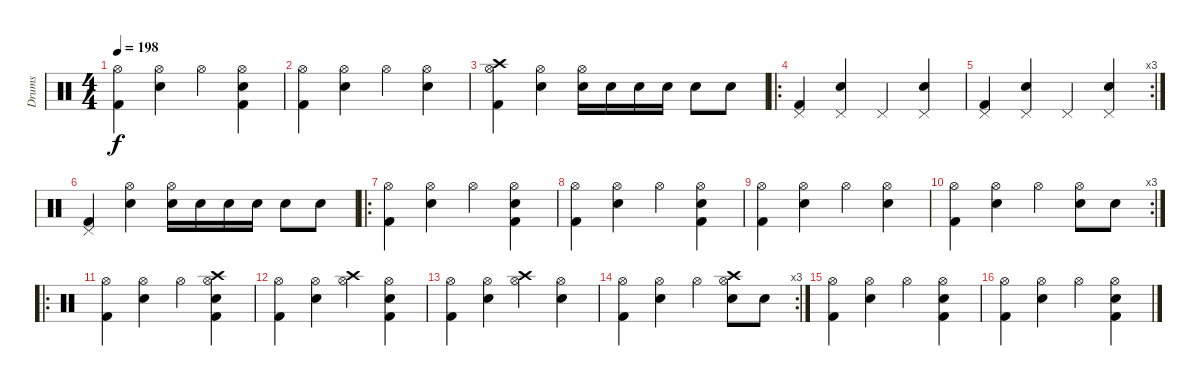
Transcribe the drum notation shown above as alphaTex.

\track ("Drums" "Drums") {instrument percussion}
\staff {score}
\articulation defaults
\ts (4 4)
\tempo 198
\clef neutral
\ks c
("Hi-Hat (open)" "Kick (hit) 2").4{dy f} ("Hi-Hat (open)" "Snare (hit) 2").4 "Hi-Hat (open)".4 ("Hi-Hat (open)" "Snare (hit) 2" "Kick (hit) 2").4 |
("Hi-Hat (open)" "Kick (hit) 2").4 ("Hi-Hat (open)" "Snare (hit) 2").4 "Hi-Hat (open)".4 ("Hi-Hat (open)" "Snare (hit) 2").4 |
("Hi-Hat (open)" "Kick (hit) 2" "Crash high (hit)").4 ("Hi-Hat (open)" "Snare (hit) 2").4 ("Hi-Hat (open)" "Snare (hit) 2").16 "Snare (hit) 2".16 "Snare (hit) 2".16 "Snare (hit) 2".16 "Snare (hit) 2".8 "Snare (hit) 2".8 |
\ro
("Pedal Hi-Hat (hit)" "Kick (hit) 2").4 ("Pedal Hi-Hat (hit)" "Snare (hit) 2").4 "Pedal Hi-Hat (hit)".4 ("Pedal Hi-Hat (hit)" "Snare (hit) 2").4 |
\rc 3
("Pedal Hi-Hat (hit)" "Kick (hit) 2").4 ("Pedal Hi-Hat (hit)" "Snare (hit) 2").4 "Pedal Hi-Hat (hit)".4 ("Pedal Hi-Hat (hit)" "Snare (hit) 2").4 |
("Pedal Hi-Hat (hit)" "Kick (hit) 2").4 ("Hi-Hat (open)" "Snare (hit) 2").4 ("Snare (hit) 2" "Hi-Hat (open)").16 "Snare (hit) 2".16 "Snare (hit) 2".16 "Snare (hit) 2".16 "Snare (hit) 2".8 "Snare (hit) 2".8 |
\ro
("Hi-Hat (open)" "Kick (hit) 2").4 ("Hi-Hat (open)" "Snare (hit) 2").4 "Hi-Hat (open)".4 ("Hi-Hat (open)" "Snare (hit) 2" "Kick (hit) 2").4 |
("Hi-Hat (open)" "Kick (hit) 2").4 ("Hi-Hat (open)" "Snare (hit) 2").4 "Hi-Hat (open)".4 ("Hi-Hat (open)" "Snare (hit) 2" "Kick (hit) 2").4 |
("Hi-Hat (open)" "Kick (hit) 2").4 ("Hi-Hat (open)" "Snare (hit) 2").4 "Hi-Hat (open)".4 ("Hi-Hat (open)" "Snare (hit) 2").4 |
\rc 3
("Hi-Hat (open)" "Kick (hit) 2").4 ("Hi-Hat (open)" "Snare (hit) 2").4 "Hi-Hat (open)".4 ("Hi-Hat (open)" "Snare (hit) 2").8 "Snare (hit) 2".8 |
\ro
("Hi-Hat (open)" "Kick (hit) 2").4 ("Hi-Hat (open)" "Snare (hit) 2").4 "Hi-Hat (open)".4 ("Hi-Hat (open)" "Snare (hit) 2" "Kick (hit) 2" "Crash high (hit)").4 |
("Hi-Hat (open)" "Kick (hit) 2").4 ("Hi-Hat (open)" "Snare (hit) 2").4 ("Hi-Hat (open)" "Crash high (hit)").4 ("Hi-Hat (open)" "Snare (hit) 2" "Kick (hit) 2").4 |
("Hi-Hat (open)" "Kick (hit) 2").4 ("Hi-Hat (open)" "Snare (hit) 2").4 ("Hi-Hat (open)" "Crash high (hit)").4 ("Hi-Hat (open)" "Snare (hit) 2").4 |
\rc 3
("Hi-Hat (open)" "Kick (hit) 2").4 ("Hi-Hat (open)" "Snare (hit) 2").4 "Hi-Hat (open)".4 ("Hi-Hat (open)" "Snare (hit) 2" "Crash high (hit)").8 "Snare (hit) 2".8 |
("Hi-Hat (open)" "Kick (hit) 2").4 ("Hi-Hat (open)" "Snare (hit) 2").4 "Hi-Hat (open)".4 ("Hi-Hat (open)" "Snare (hit) 2" "Kick (hit) 2").4 |
("Hi-Hat (open)" "Kick (hit) 2").4 ("Hi-Hat (open)" "Snare (hit) 2").4 "Hi-Hat (open)".4 ("Hi-Hat (open)" "Snare (hit) 2" "Kick (hit) 2").4
